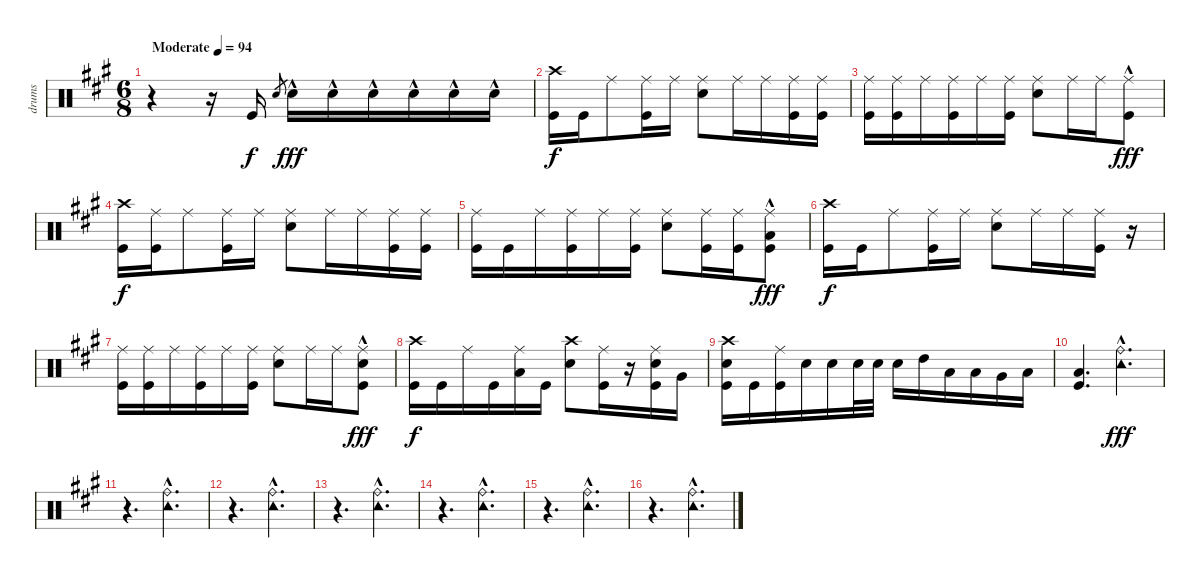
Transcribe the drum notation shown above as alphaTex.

\track ("drums" "drums") {instrument percussion}
\staff {score}
\articulation defaults
\ts (6 8)
\tempo (94 "Moderate")
\clef neutral
\ks a
r.4{dy f} r.16 "Kick (hit)".16 "Snare (hit) 2".8{gr} "Snare (hit) 2"{hac}.16{dy fff} "Snare (hit) 2"{hac}.16 "Snare (hit) 2"{hac}.16 "Snare (hit) 2"{hac}.16 "Snare (hit) 2"{hac}.16 "Snare (hit) 2"{hac}.16 |
("Crash high (hit)" "Kick (hit)").16{dy f} "Kick (hit)".16 "Ride (middle)".8 ("Ride (middle)" "Kick (hit)").16 "Ride (middle)".16 ("Ride (middle)" "Snare (hit) 2").8 "Ride (middle)".16 "Ride (middle)".16 ("Ride (middle)" "Kick (hit)").16 ("Ride (middle)" "Kick (hit)").16 |
("Ride (middle)" "Kick (hit)").16 ("Ride (middle)" "Kick (hit)").16 "Ride (middle)".16 ("Ride (middle)" "Kick (hit)").16 "Ride (middle)".16 ("Ride (middle)" "Kick (hit)").16 ("Ride (middle)" "Snare (hit) 2").8 "Ride (middle)".16 "Ride (middle)".16 ("Ride (middle)"{hac} "Kick (hit)").8{dy fff} |
("Crash high (hit)" "Kick (hit)").16{dy f} ("Kick (hit)" "Ride (middle)").16 "Ride (middle)".8 ("Ride (middle)" "Kick (hit)").16 "Ride (middle)".16 ("Ride (middle)" "Snare (hit) 2").8 "Ride (middle)".16 "Ride (middle)".16 ("Ride (middle)" "Kick (hit)").16 ("Ride (middle)" "Kick (hit)").16 |
("Ride (middle)" "Kick (hit)").16 "Kick (hit)".16 "Ride (middle)".16 ("Ride (middle)" "Kick (hit)").16 "Ride (middle)".16 ("Ride (middle)" "Kick (hit)").16 ("Ride (middle)" "Snare (hit) 2").8 ("Ride (middle)" "Kick (hit)").16 ("Ride (middle)" "Kick (hit)").16 ("Ride (middle)"{hac} "Kick (hit)" "Low Tom (hit)").8{dy fff} |
("Crash high (hit)" "Kick (hit)").16{dy f} "Kick (hit)".16 "Ride (middle)".8 ("Ride (middle)" "Kick (hit)").16 "Ride (middle)".16 ("Ride (middle)" "Snare (hit) 2").8 "Ride (middle)".16 "Ride (middle)".16 ("Ride (middle)" "Kick (hit)").16 r.16 |
("Ride (middle)" "Kick (hit)").16 ("Ride (middle)" "Kick (hit)").16 "Ride (middle)".16 ("Ride (middle)" "Kick (hit)").16 "Ride (middle)".16 ("Ride (middle)" "Kick (hit)").16 ("Ride (middle)" "Snare (hit) 2").8 "Ride (middle)".16 "Ride (middle)".16 ("Ride (middle)"{hac} "Kick (hit)" "Snare (hit) 2").8{dy fff} |
("Kick (hit)" "Crash high (hit)").16{dy f} "Kick (hit)".16 "Ride (middle)".16 "Kick (hit)".16 ("Low Tom (hit)" "Ride (middle)").16 "Kick (hit)".16 ("Snare (hit) 2" "Crash high (hit)").8 ("Ride (middle)" "Kick (hit)").16 r.16 ("Ride (middle)" "Kick (hit)" "Snare (hit) 2").16 "Very Low Tom (hit)".16 |
("Crash high (hit)" "Kick (hit)" "Snare (hit) 2").16 "Kick (hit)".16 ("Ride (middle)" "Kick (hit)").16 "Snare (hit) 2".16 "Snare (hit) 2".16 "Snare (hit) 2".32 "Snare (hit) 2".32 "Snare (hit) 2".16 "High Tom (hit)".16 "Low Tom (hit)".16 "Low Tom (hit)".16 "Very Low Tom (hit)".16 "Low Floor Tom (hit)".16 |
("Kick (hit)" "Low Tom (hit)").4{d} ("Tambourine (hit)"{hac} "Ride (bell)").4{d dy fff} |
r.4{d} ("Tambourine (hit)"{hac} "Ride (bell)").4{d} |
r.4{d} ("Tambourine (hit)"{hac} "Ride (bell)").4{d} |
r.4{d} ("Tambourine (hit)"{hac} "Ride (bell)").4{d} |
r.4{d} ("Tambourine (hit)"{hac} "Ride (bell)").4{d} |
r.4{d} ("Tambourine (hit)"{hac} "Ride (bell)").4{d} |
r.4{d} ("Tambourine (hit)"{hac} "Ride (bell)").4{d}
